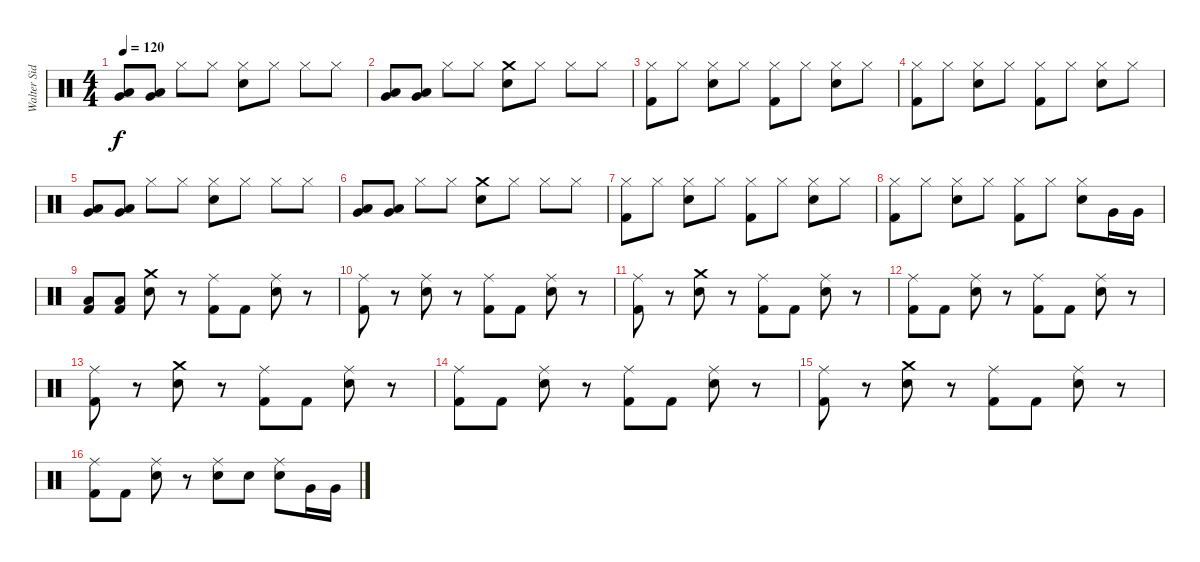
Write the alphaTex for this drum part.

\track ("Walter Sidotti" "Walter Sid") {instrument percussion}
\staff {score}
\articulation defaults
\ts (4 4)
\tempo 120
\clef neutral
\ks c
("Very Low Tom (hit)" "Low Tom (hit)").8{dy f} ("Very Low Tom (hit)" "Low Tom (hit)").8 "Hi-Hat (closed)".8 "Hi-Hat (closed)".8 ("Hi-Hat (closed)" "Electric Snare (hit)").8 "Hi-Hat (closed)".8 "Hi-Hat (closed)".8 "Hi-Hat (closed)".8 |
("Very Low Tom (hit)" "Low Tom (hit)").8 ("Very Low Tom (hit)" "Low Tom (hit)").8 "Hi-Hat (closed)".8 "Hi-Hat (closed)".8 ("Crash medium (hit)" "Electric Snare (hit)").8 "Hi-Hat (closed)".8 "Hi-Hat (closed)".8 "Hi-Hat (closed)".8 |
("Kick (hit) 2" "Hi-Hat (closed)").8 "Hi-Hat (closed)".8 ("Electric Snare (hit)" "Hi-Hat (closed)").8 "Hi-Hat (closed)".8 ("Kick (hit) 2" "Hi-Hat (closed)").8 "Hi-Hat (closed)".8 ("Electric Snare (hit)" "Hi-Hat (closed)").8 "Hi-Hat (closed)".8 |
("Kick (hit) 2" "Hi-Hat (closed)").8 "Hi-Hat (closed)".8 ("Electric Snare (hit)" "Hi-Hat (closed)").8 "Hi-Hat (closed)".8 ("Kick (hit) 2" "Hi-Hat (closed)").8 "Hi-Hat (closed)".8 ("Electric Snare (hit)" "Hi-Hat (closed)").8 "Hi-Hat (closed)".8 |
("Very Low Tom (hit)" "Low Tom (hit)").8 ("Very Low Tom (hit)" "Low Tom (hit)").8 "Hi-Hat (closed)".8 "Hi-Hat (closed)".8 ("Hi-Hat (closed)" "Electric Snare (hit)").8 "Hi-Hat (closed)".8 "Hi-Hat (closed)".8 "Hi-Hat (closed)".8 |
("Very Low Tom (hit)" "Low Tom (hit)").8 ("Very Low Tom (hit)" "Low Tom (hit)").8 "Hi-Hat (closed)".8 "Hi-Hat (closed)".8 ("Crash medium (hit)" "Electric Snare (hit)").8 "Hi-Hat (closed)".8 "Hi-Hat (closed)".8 "Hi-Hat (closed)".8 |
("Kick (hit) 2" "Hi-Hat (closed)").8 "Hi-Hat (closed)".8 ("Electric Snare (hit)" "Hi-Hat (closed)").8 "Hi-Hat (closed)".8 ("Kick (hit) 2" "Hi-Hat (closed)").8 "Hi-Hat (closed)".8 ("Electric Snare (hit)" "Hi-Hat (closed)").8 "Hi-Hat (closed)".8 |
("Kick (hit) 2" "Hi-Hat (closed)").8 "Hi-Hat (closed)".8 ("Electric Snare (hit)" "Hi-Hat (closed)").8 "Hi-Hat (closed)".8 ("Kick (hit) 2" "Hi-Hat (closed)").8 "Hi-Hat (closed)".8 ("Electric Snare (hit)" "Hi-Hat (closed)").8 "Very Low Tom (hit)".16 "Very Low Tom (hit)".16 |
("Kick (hit) 2" "Low Tom (hit)").8 ("Kick (hit) 2" "Low Tom (hit)").8 ("Electric Snare (hit)" "Crash medium (hit)").8 r.8 ("Kick (hit) 2" "Ride (middle)").8 "Kick (hit) 2".8 ("Electric Snare (hit)" "Ride (middle)").8 r.8 |
("Kick (hit) 2" "Ride (middle)").8 r.8 ("Electric Snare (hit)" "Ride (middle)").8 r.8 ("Kick (hit) 2" "Ride (middle)").8 "Kick (hit) 2".8 ("Electric Snare (hit)" "Ride (middle)").8 r.8 |
("Kick (hit) 2" "Ride (middle)").8 r.8 ("Electric Snare (hit)" "Crash medium (hit)").8 r.8 ("Kick (hit) 2" "Ride (middle)").8 "Kick (hit) 2".8 ("Electric Snare (hit)" "Ride (middle)").8 r.8 |
("Kick (hit) 2" "Ride (middle)").8 "Kick (hit) 2".8 ("Electric Snare (hit)" "Ride (middle)").8 r.8 ("Kick (hit) 2" "Ride (middle)").8 "Kick (hit) 2".8 ("Electric Snare (hit)" "Ride (middle)").8 r.8 |
("Kick (hit) 2" "Ride (middle)").8 r.8 ("Electric Snare (hit)" "Crash medium (hit)").8 r.8 ("Kick (hit) 2" "Ride (middle)").8 "Kick (hit) 2".8 ("Electric Snare (hit)" "Ride (middle)").8 r.8 |
("Kick (hit) 2" "Ride (middle)").8 "Kick (hit) 2".8 ("Electric Snare (hit)" "Ride (middle)").8 r.8 ("Kick (hit) 2" "Ride (middle)").8 "Kick (hit) 2".8 ("Electric Snare (hit)" "Ride (middle)").8 r.8 |
("Kick (hit) 2" "Ride (middle)").8 r.8 ("Electric Snare (hit)" "Crash medium (hit)").8 r.8 ("Kick (hit) 2" "Ride (middle)").8 "Kick (hit) 2".8 ("Electric Snare (hit)" "Ride (middle)").8 r.8 |
("Kick (hit) 2" "Ride (middle)").8 "Kick (hit) 2".8 ("Electric Snare (hit)" "Ride (middle)").8 r.8 ("Electric Snare (hit)" "Ride (middle)").8 "Electric Snare (hit)".8 ("Electric Snare (hit)" "Ride (middle)").8 "Very Low Tom (hit)".16 "Very Low Tom (hit)".16
